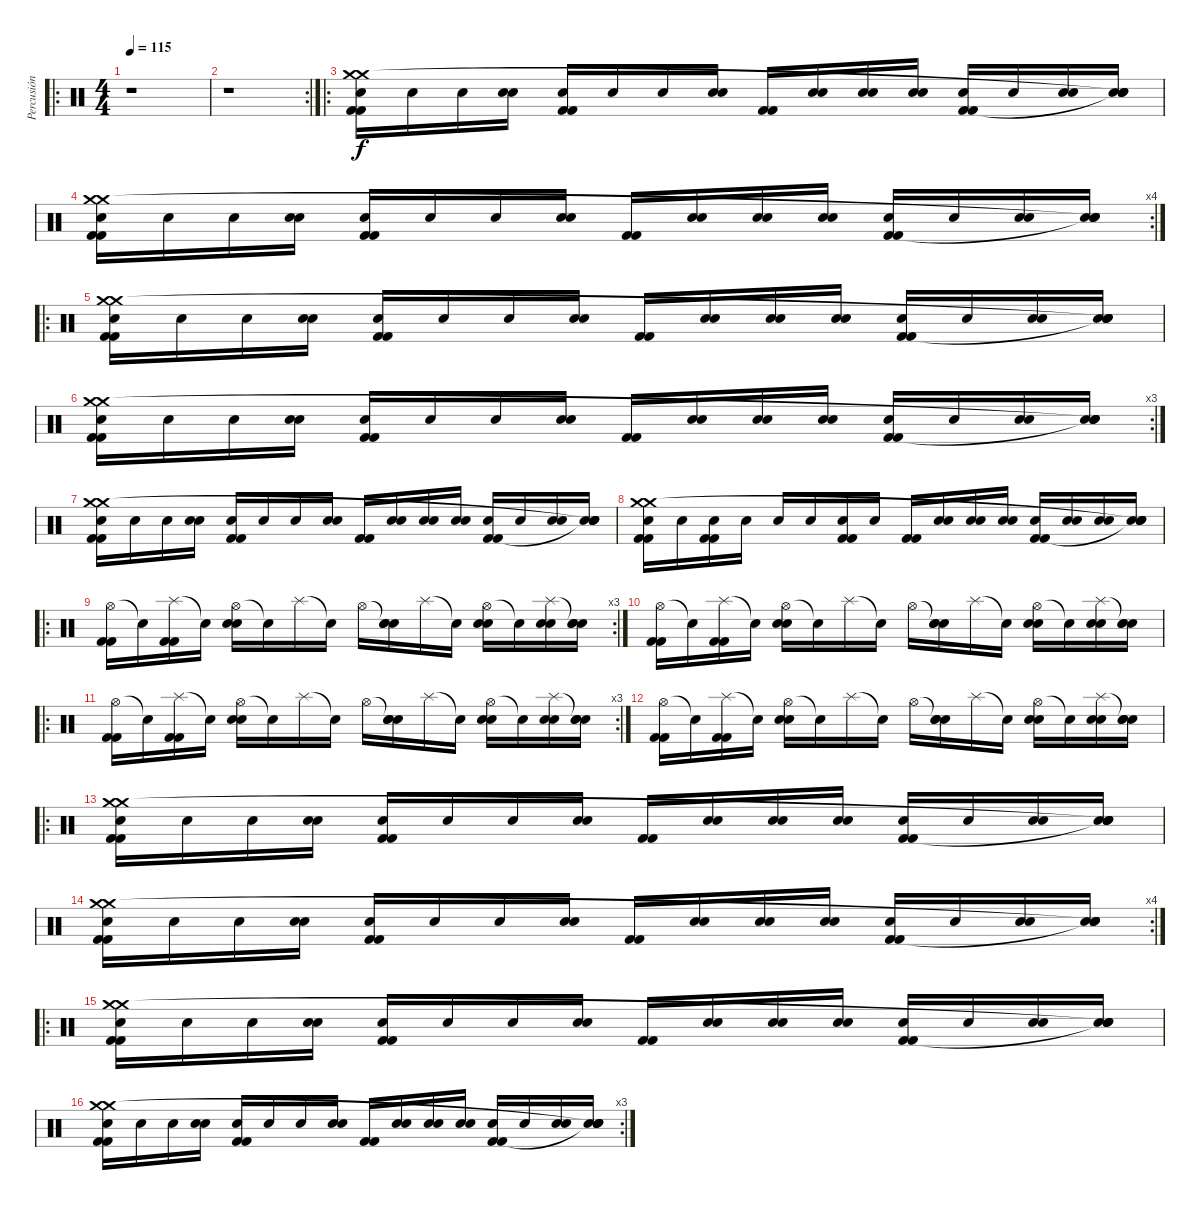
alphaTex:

\track ("Percusión" "Percusión") {instrument percussion}
\staff {score}
\articulation defaults
\ro
\ts (4 4)
\tempo 115
\clef neutral
\ks c
r.1{dy f} |
\rc 2
r.1 |
\ro
("Electric Snare (hit)" "Kick (hit) 2" "Kick (hit) 2" "Crash medium (hit)" "Crash medium (hit)").16 "Snare (hit)".16 "Snare (hit)".16 ("Electric Snare (hit)" "Snare (hit)").16 ("Electric Snare (hit)" "Kick (hit) 2" "Kick (hit) 2").16 "Snare (hit)".16 "Snare (hit)".16 ("Electric Snare (hit)" "Snare (hit)").16 ("Kick (hit) 2" "Kick (hit) 2").16 ("Electric Snare (hit)" "Snare (hit)").16 ("Electric Snare (hit)" "Snare (hit)").16 ("Electric Snare (hit)" "Snare (hit)").16 ("Electric Snare (hit)" "Kick (hit) 2" "Kick (hit) 2").16 "Snare (hit)".16 ("Electric Snare (hit)" "Snare (hit)").16 ("Electric Snare (hit)" "Snare (hit)" "Snare (hit)"{t} "Snare (hit)"{t}).16 |
\rc 4
("Electric Snare (hit)" "Kick (hit) 2" "Kick (hit) 2" "Crash medium (hit)" "Crash medium (hit)").16 "Snare (hit)".16 "Snare (hit)".16 ("Electric Snare (hit)" "Snare (hit)").16 ("Electric Snare (hit)" "Kick (hit) 2" "Kick (hit) 2").16 "Snare (hit)".16 "Snare (hit)".16 ("Electric Snare (hit)" "Snare (hit)").16 ("Kick (hit) 2" "Kick (hit) 2").16 ("Electric Snare (hit)" "Snare (hit)").16 ("Electric Snare (hit)" "Snare (hit)").16 ("Electric Snare (hit)" "Snare (hit)").16 ("Electric Snare (hit)" "Kick (hit) 2" "Kick (hit) 2").16 "Snare (hit)".16 ("Electric Snare (hit)" "Snare (hit)").16 ("Electric Snare (hit)" "Snare (hit)" "Snare (hit)"{t} "Snare (hit)"{t}).16 |
\ro
("Electric Snare (hit)" "Kick (hit) 2" "Kick (hit) 2" "Crash medium (hit)" "Crash medium (hit)").16 "Snare (hit)".16 "Snare (hit)".16 ("Electric Snare (hit)" "Snare (hit)").16 ("Electric Snare (hit)" "Kick (hit) 2" "Kick (hit) 2").16 "Snare (hit)".16 "Snare (hit)".16 ("Electric Snare (hit)" "Snare (hit)").16 ("Kick (hit) 2" "Kick (hit) 2").16 ("Electric Snare (hit)" "Snare (hit)").16 ("Electric Snare (hit)" "Snare (hit)").16 ("Electric Snare (hit)" "Snare (hit)").16 ("Electric Snare (hit)" "Kick (hit) 2" "Kick (hit) 2").16 "Snare (hit)".16 ("Electric Snare (hit)" "Snare (hit)").16 ("Electric Snare (hit)" "Snare (hit)" "Snare (hit)"{t} "Snare (hit)"{t}).16 |
\rc 3
("Electric Snare (hit)" "Kick (hit) 2" "Kick (hit) 2" "Crash medium (hit)" "Crash medium (hit)").16 "Snare (hit)".16 "Snare (hit)".16 ("Electric Snare (hit)" "Snare (hit)").16 ("Electric Snare (hit)" "Kick (hit) 2" "Kick (hit) 2").16 "Snare (hit)".16 "Snare (hit)".16 ("Electric Snare (hit)" "Snare (hit)").16 ("Kick (hit) 2" "Kick (hit) 2").16 ("Electric Snare (hit)" "Snare (hit)").16 ("Electric Snare (hit)" "Snare (hit)").16 ("Electric Snare (hit)" "Snare (hit)").16 ("Electric Snare (hit)" "Kick (hit) 2" "Kick (hit) 2").16 "Snare (hit)".16 ("Electric Snare (hit)" "Snare (hit)").16 ("Electric Snare (hit)" "Snare (hit)" "Snare (hit)"{t} "Snare (hit)"{t}).16 |
("Electric Snare (hit)" "Kick (hit) 2" "Kick (hit) 2" "Crash medium (hit)" "Crash medium (hit)").16 "Snare (hit)".16 "Snare (hit)".16 ("Electric Snare (hit)" "Snare (hit)").16 ("Electric Snare (hit)" "Kick (hit) 2" "Kick (hit) 2").16 "Snare (hit)".16 "Snare (hit)".16 ("Electric Snare (hit)" "Snare (hit)").16 ("Kick (hit) 2" "Kick (hit) 2").16 ("Electric Snare (hit)" "Snare (hit)").16 ("Electric Snare (hit)" "Snare (hit)").16 ("Electric Snare (hit)" "Snare (hit)").16 ("Electric Snare (hit)" "Kick (hit) 2" "Kick (hit) 2").16 "Snare (hit)".16 ("Electric Snare (hit)" "Snare (hit)").16 ("Electric Snare (hit)" "Snare (hit)" "Snare (hit)"{t} "Snare (hit)"{t}).16 |
("Electric Snare (hit)" "Kick (hit) 2" "Kick (hit) 2" "Crash medium (hit)" "Crash medium (hit)").16 "Snare (hit)".16 ("Electric Snare (hit)" "Kick (hit) 2" "Kick (hit) 2").16 "Snare (hit)".16 "Snare (hit)".16 "Snare (hit)".16 ("Electric Snare (hit)" "Kick (hit) 2" "Kick (hit) 2").16 "Snare (hit)".16 ("Kick (hit) 2" "Kick (hit) 2").16 ("Electric Snare (hit)" "Snare (hit)").16 ("Electric Snare (hit)" "Snare (hit)").16 ("Electric Snare (hit)" "Snare (hit)").16 ("Electric Snare (hit)" "Kick (hit) 2" "Kick (hit) 2").16 ("Electric Snare (hit)" "Snare (hit)").16 ("Electric Snare (hit)" "Snare (hit)").16 ("Electric Snare (hit)" "Snare (hit)" "Snare (hit)"{t} "Snare (hit)"{t}).16 |
\ro
\rc 3
("Hi-Hat (open)" "Kick (hit) 2" "Kick (hit) 2").16 "Snare (hit)"{t}.16 ("Splash (hit)" "Kick (hit) 2" "Kick (hit) 2").16 "Snare (hit)"{t}.16 ("Hi-Hat (open)" "Electric Snare (hit)" "Electric Snare (hit)").16 "Snare (hit)"{t}.16 "Splash (hit)".16 "Snare (hit)"{t}.16 "Hi-Hat (open)".16 ("Snare (hit)"{t} "Electric Snare (hit)" "Electric Snare (hit)").16 "Splash (hit)".16 "Snare (hit)"{t}.16 ("Hi-Hat (open)" "Electric Snare (hit)" "Electric Snare (hit)").16 "Snare (hit)"{t}.16 ("Splash (hit)" "Electric Snare (hit)" "Electric Snare (hit)").16 ("Snare (hit)"{t} "Electric Snare (hit)" "Electric Snare (hit)").16 |
("Hi-Hat (open)" "Kick (hit) 2" "Kick (hit) 2").16 "Snare (hit)"{t}.16 ("Splash (hit)" "Kick (hit) 2" "Kick (hit) 2").16 "Snare (hit)"{t}.16 ("Hi-Hat (open)" "Electric Snare (hit)" "Electric Snare (hit)").16 "Snare (hit)"{t}.16 "Splash (hit)".16 "Snare (hit)"{t}.16 "Hi-Hat (open)".16 ("Snare (hit)"{t} "Electric Snare (hit)" "Electric Snare (hit)").16 "Splash (hit)".16 "Snare (hit)"{t}.16 ("Hi-Hat (open)" "Electric Snare (hit)" "Electric Snare (hit)").16 "Snare (hit)"{t}.16 ("Splash (hit)" "Electric Snare (hit)" "Electric Snare (hit)").16 ("Snare (hit)"{t} "Electric Snare (hit)" "Electric Snare (hit)").16 |
\ro
\rc 3
("Hi-Hat (open)" "Kick (hit) 2" "Kick (hit) 2").16 "Snare (hit)"{t}.16 ("Splash (hit)" "Kick (hit) 2" "Kick (hit) 2").16 "Snare (hit)"{t}.16 ("Hi-Hat (open)" "Electric Snare (hit)" "Electric Snare (hit)").16 "Snare (hit)"{t}.16 "Splash (hit)".16 "Snare (hit)"{t}.16 "Hi-Hat (open)".16 ("Snare (hit)"{t} "Electric Snare (hit)" "Electric Snare (hit)").16 "Splash (hit)".16 "Snare (hit)"{t}.16 ("Hi-Hat (open)" "Electric Snare (hit)" "Electric Snare (hit)").16 "Snare (hit)"{t}.16 ("Splash (hit)" "Electric Snare (hit)" "Electric Snare (hit)").16 ("Snare (hit)"{t} "Electric Snare (hit)" "Electric Snare (hit)").16 |
("Hi-Hat (open)" "Kick (hit) 2" "Kick (hit) 2").16 "Snare (hit)"{t}.16 ("Splash (hit)" "Kick (hit) 2" "Kick (hit) 2").16 "Snare (hit)"{t}.16 ("Hi-Hat (open)" "Electric Snare (hit)" "Electric Snare (hit)").16 "Snare (hit)"{t}.16 "Splash (hit)".16 "Snare (hit)"{t}.16 "Hi-Hat (open)".16 ("Snare (hit)"{t} "Electric Snare (hit)" "Electric Snare (hit)").16 "Splash (hit)".16 "Snare (hit)"{t}.16 ("Hi-Hat (open)" "Electric Snare (hit)" "Electric Snare (hit)").16 "Snare (hit)"{t}.16 ("Splash (hit)" "Electric Snare (hit)" "Electric Snare (hit)").16 ("Snare (hit)"{t} "Electric Snare (hit)" "Electric Snare (hit)").16 |
\ro
("Electric Snare (hit)" "Kick (hit) 2" "Kick (hit) 2" "Crash medium (hit)" "Crash medium (hit)").16 "Snare (hit)".16 "Snare (hit)".16 ("Electric Snare (hit)" "Snare (hit)").16 ("Electric Snare (hit)" "Kick (hit) 2" "Kick (hit) 2").16 "Snare (hit)".16 "Snare (hit)".16 ("Electric Snare (hit)" "Snare (hit)").16 ("Kick (hit) 2" "Kick (hit) 2").16 ("Electric Snare (hit)" "Snare (hit)").16 ("Electric Snare (hit)" "Snare (hit)").16 ("Electric Snare (hit)" "Snare (hit)").16 ("Electric Snare (hit)" "Kick (hit) 2" "Kick (hit) 2").16 "Snare (hit)".16 ("Electric Snare (hit)" "Snare (hit)").16 ("Electric Snare (hit)" "Snare (hit)" "Snare (hit)"{t} "Snare (hit)"{t}).16 |
\rc 4
("Electric Snare (hit)" "Kick (hit) 2" "Kick (hit) 2" "Crash medium (hit)" "Crash medium (hit)").16 "Snare (hit)".16 "Snare (hit)".16 ("Electric Snare (hit)" "Snare (hit)").16 ("Electric Snare (hit)" "Kick (hit) 2" "Kick (hit) 2").16 "Snare (hit)".16 "Snare (hit)".16 ("Electric Snare (hit)" "Snare (hit)").16 ("Kick (hit) 2" "Kick (hit) 2").16 ("Electric Snare (hit)" "Snare (hit)").16 ("Electric Snare (hit)" "Snare (hit)").16 ("Electric Snare (hit)" "Snare (hit)").16 ("Electric Snare (hit)" "Kick (hit) 2" "Kick (hit) 2").16 "Snare (hit)".16 ("Electric Snare (hit)" "Snare (hit)").16 ("Electric Snare (hit)" "Snare (hit)" "Snare (hit)"{t} "Snare (hit)"{t}).16 |
\ro
("Electric Snare (hit)" "Kick (hit) 2" "Kick (hit) 2" "Crash medium (hit)" "Crash medium (hit)").16 "Snare (hit)".16 "Snare (hit)".16 ("Electric Snare (hit)" "Snare (hit)").16 ("Electric Snare (hit)" "Kick (hit) 2" "Kick (hit) 2").16 "Snare (hit)".16 "Snare (hit)".16 ("Electric Snare (hit)" "Snare (hit)").16 ("Kick (hit) 2" "Kick (hit) 2").16 ("Electric Snare (hit)" "Snare (hit)").16 ("Electric Snare (hit)" "Snare (hit)").16 ("Electric Snare (hit)" "Snare (hit)").16 ("Electric Snare (hit)" "Kick (hit) 2" "Kick (hit) 2").16 "Snare (hit)".16 ("Electric Snare (hit)" "Snare (hit)").16 ("Electric Snare (hit)" "Snare (hit)" "Snare (hit)"{t} "Snare (hit)"{t}).16 |
\rc 3
("Electric Snare (hit)" "Kick (hit) 2" "Kick (hit) 2" "Crash medium (hit)" "Crash medium (hit)").16 "Snare (hit)".16 "Snare (hit)".16 ("Electric Snare (hit)" "Snare (hit)").16 ("Electric Snare (hit)" "Kick (hit) 2" "Kick (hit) 2").16 "Snare (hit)".16 "Snare (hit)".16 ("Electric Snare (hit)" "Snare (hit)").16 ("Kick (hit) 2" "Kick (hit) 2").16 ("Electric Snare (hit)" "Snare (hit)").16 ("Electric Snare (hit)" "Snare (hit)").16 ("Electric Snare (hit)" "Snare (hit)").16 ("Electric Snare (hit)" "Kick (hit) 2" "Kick (hit) 2").16 "Snare (hit)".16 ("Electric Snare (hit)" "Snare (hit)").16 ("Electric Snare (hit)" "Snare (hit)" "Snare (hit)"{t} "Snare (hit)"{t}).16
